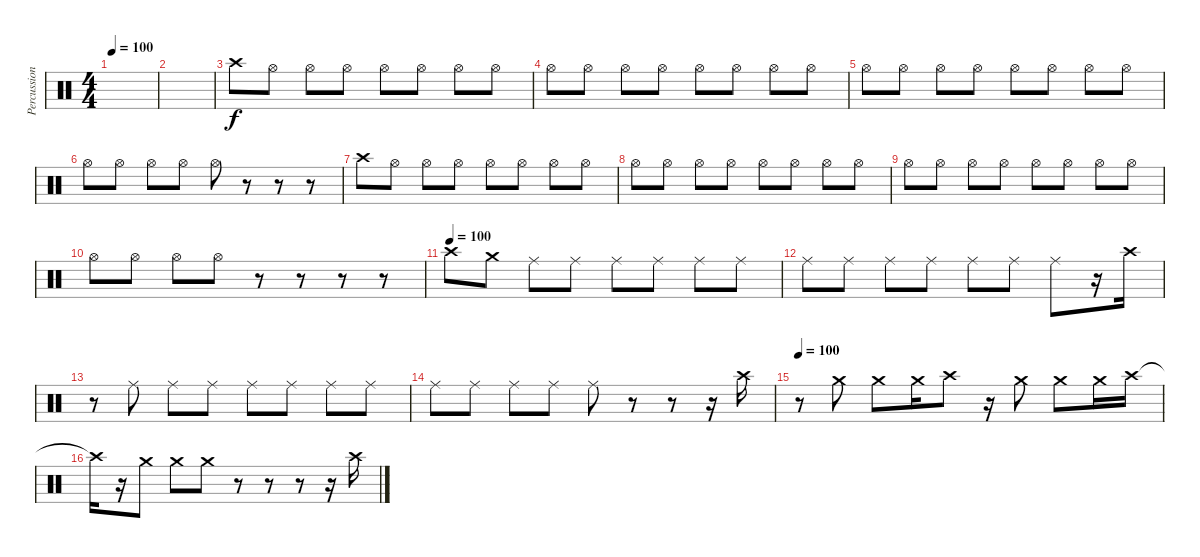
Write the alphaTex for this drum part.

\track ("Percussion2" "Percussion") {instrument percussion}
\staff {score}
\articulation defaults
\ts (4 4)
\tempo 100
\clef neutral
\ks c
|
|
"Crash high (hit)".8 "Hi-Hat (open)".8 "Hi-Hat (open)".8 "Hi-Hat (open)".8 "Hi-Hat (open)".8 "Hi-Hat (open)".8 "Hi-Hat (open)".8 "Hi-Hat (open)".8 |
"Hi-Hat (open)".8 "Hi-Hat (open)".8 "Hi-Hat (open)".8 "Hi-Hat (open)".8 "Hi-Hat (open)".8 "Hi-Hat (open)".8 "Hi-Hat (open)".8 "Hi-Hat (open)".8 |
"Hi-Hat (open)".8 "Hi-Hat (open)".8 "Hi-Hat (open)".8 "Hi-Hat (open)".8 "Hi-Hat (open)".8 "Hi-Hat (open)".8 "Hi-Hat (open)".8 "Hi-Hat (open)".8 |
"Hi-Hat (open)".8 "Hi-Hat (open)".8 "Hi-Hat (open)".8 "Hi-Hat (open)".8 "Hi-Hat (open)".8 r.8 r.8 r.8 |
"Crash high (hit)".8 "Hi-Hat (open)".8 "Hi-Hat (open)".8 "Hi-Hat (open)".8 "Hi-Hat (open)".8 "Hi-Hat (open)".8 "Hi-Hat (open)".8 "Hi-Hat (open)".8 |
"Hi-Hat (open)".8 "Hi-Hat (open)".8 "Hi-Hat (open)".8 "Hi-Hat (open)".8 "Hi-Hat (open)".8 "Hi-Hat (open)".8 "Hi-Hat (open)".8 "Hi-Hat (open)".8 |
"Hi-Hat (open)".8 "Hi-Hat (open)".8 "Hi-Hat (open)".8 "Hi-Hat (open)".8 "Hi-Hat (open)".8 "Hi-Hat (open)".8 "Hi-Hat (open)".8 "Hi-Hat (open)".8 |
"Hi-Hat (open)".8 "Hi-Hat (open)".8 "Hi-Hat (open)".8 "Hi-Hat (open)".8 r.8 r.8 r.8 r.8 |
\tempo (100)
"Crash high (hit)".8 "Crash medium (hit)".8 "Ride (middle)".8 "Ride (middle)".8 "Ride (middle)".8 "Ride (middle)".8 "Ride (middle)".8 "Ride (middle)".8 |
"Ride (middle)".8 "Ride (middle)".8 "Ride (middle)".8 "Ride (middle)".8 "Ride (middle)".8 "Ride (middle)".8 "Ride (middle)".8 r.16 "Crash high (hit)".16 |
r.8 "Ride (middle)".8 "Ride (middle)".8 "Ride (middle)".8 "Ride (middle)".8 "Ride (middle)".8 "Ride (middle)".8 "Ride (middle)".8 |
"Ride (middle)".8 "Ride (middle)".8 "Ride (middle)".8 "Ride (middle)".8 "Ride (middle)".8 r.8 r.8 r.16 "Crash high (hit)".16 |
\tempo 100
r.8 "Crash medium (hit)".8 "Crash medium (hit)".8 "Crash medium (hit)".16 "Crash high (hit)".8 r.16 "Crash medium (hit)".8 "Crash medium (hit)".8 "Crash medium (hit)".16 "Crash high (hit)".16 |
"Crash high (hit)"{t}.16 r.16 "Crash medium (hit)".8 "Crash medium (hit)".8 "Crash medium (hit)".8 r.8 r.8 r.8 r.16 "Crash high (hit)".16
